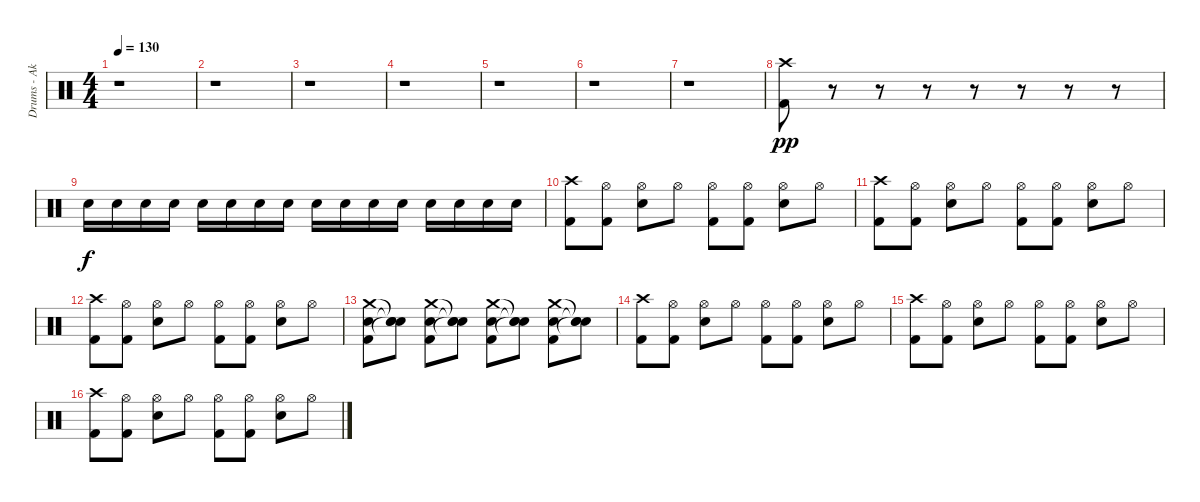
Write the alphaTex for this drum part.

\track ("Drums - Aki Hakala/Janne" "Drums - Ak") {instrument percussion}
\staff {score}
\articulation defaults
\ts (4 4)
\tempo 130
\clef neutral
\ks c
r.1{dy pp} |
r.1 |
r.1 |
r.1 |
r.1 |
r.1 |
r.1 |
("Crash high (hit)" "Kick (hit) 2").8 r.8 r.8 r.8 r.8 r.8 r.8 r.8 |
"Electric Snare (hit)".16{dy f} "Electric Snare (hit)".16 "Electric Snare (hit)".16 "Electric Snare (hit)".16 "Electric Snare (hit)".16 "Electric Snare (hit)".16 "Electric Snare (hit)".16 "Electric Snare (hit)".16 "Electric Snare (hit)".16 "Electric Snare (hit)".16 "Electric Snare (hit)".16 "Electric Snare (hit)".16 "Electric Snare (hit)".16 "Electric Snare (hit)".16 "Electric Snare (hit)".16 "Electric Snare (hit)".16 |
("Crash high (hit)" "Kick (hit) 2").8 ("Hi-Hat (open)" "Kick (hit) 2").8 ("Hi-Hat (open)" "Electric Snare (hit)").8 "Hi-Hat (open)".8 ("Hi-Hat (open)" "Kick (hit) 2").8 ("Hi-Hat (open)" "Kick (hit) 2").8 ("Hi-Hat (open)" "Electric Snare (hit)").8 "Hi-Hat (open)".8 |
("Crash high (hit)" "Kick (hit) 2").8 ("Hi-Hat (open)" "Kick (hit) 2").8 ("Hi-Hat (open)" "Electric Snare (hit)").8 "Hi-Hat (open)".8 ("Hi-Hat (open)" "Kick (hit) 2").8 ("Hi-Hat (open)" "Kick (hit) 2").8 ("Hi-Hat (open)" "Electric Snare (hit)").8 "Hi-Hat (open)".8 |
("Crash high (hit)" "Kick (hit) 2").8 ("Hi-Hat (open)" "Kick (hit) 2").8 ("Hi-Hat (open)" "Electric Snare (hit)").8 "Hi-Hat (open)".8 ("Hi-Hat (open)" "Kick (hit) 2").8 ("Hi-Hat (open)" "Kick (hit) 2").8 ("Hi-Hat (open)" "Electric Snare (hit)").8 "Hi-Hat (open)".8 |
("Crash medium (hit)" "Electric Snare (hit)" "Kick (hit) 2").8 ("Snare (hit)"{t} "Electric Snare (hit)"{t} "Snare (hit)"{t}).8 ("Crash medium (hit)" "Electric Snare (hit)" "Kick (hit) 2").8 ("Snare (hit)"{t} "Snare (hit)"{t} "Snare (hit)"{t}).8 ("Crash medium (hit)" "Electric Snare (hit)" "Kick (hit) 2").8 ("Snare (hit)"{t} "Snare (hit)"{t} "Snare (hit)"{t}).8 ("Crash medium (hit)" "Electric Snare (hit)" "Kick (hit) 2").8 ("Snare (hit)"{t} "Snare (hit)"{t} "Snare (hit)"{t}).8 |
("Crash high (hit)" "Kick (hit) 2").8 ("Hi-Hat (open)" "Kick (hit) 2").8 ("Hi-Hat (open)" "Electric Snare (hit)").8 "Hi-Hat (open)".8 ("Hi-Hat (open)" "Kick (hit) 2").8 ("Hi-Hat (open)" "Kick (hit) 2").8 ("Hi-Hat (open)" "Electric Snare (hit)").8 "Hi-Hat (open)".8 |
("Crash high (hit)" "Kick (hit) 2").8 ("Hi-Hat (open)" "Kick (hit) 2").8 ("Hi-Hat (open)" "Electric Snare (hit)").8 "Hi-Hat (open)".8 ("Hi-Hat (open)" "Kick (hit) 2").8 ("Hi-Hat (open)" "Kick (hit) 2").8 ("Hi-Hat (open)" "Electric Snare (hit)").8 "Hi-Hat (open)".8 |
("Crash high (hit)" "Kick (hit) 2").8 ("Hi-Hat (open)" "Kick (hit) 2").8 ("Hi-Hat (open)" "Electric Snare (hit)").8 "Hi-Hat (open)".8 ("Hi-Hat (open)" "Kick (hit) 2").8 ("Hi-Hat (open)" "Kick (hit) 2").8 ("Hi-Hat (open)" "Electric Snare (hit)").8 "Hi-Hat (open)".8
